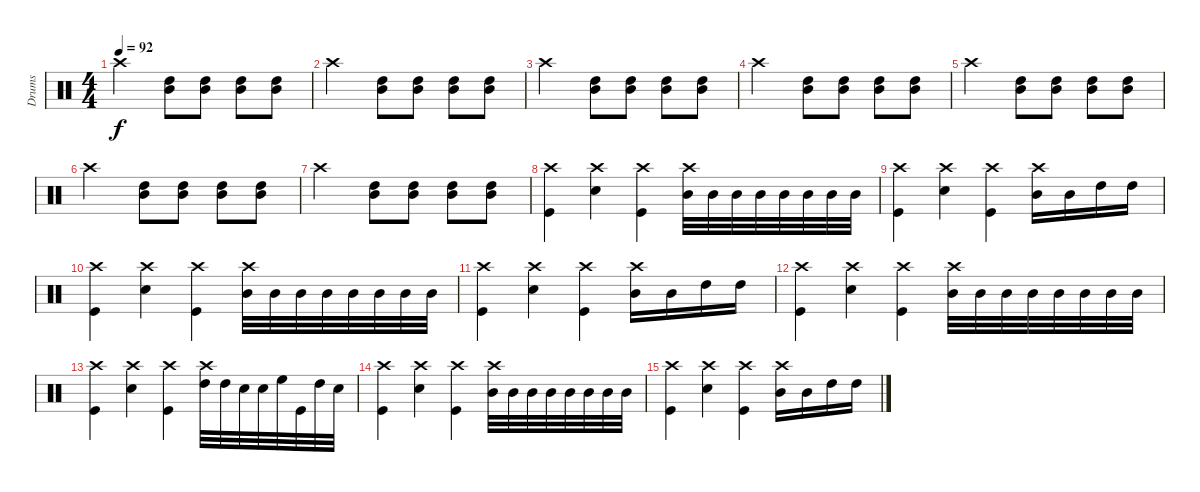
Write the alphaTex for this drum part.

\track ("Drums" "Drums") {instrument percussion}
\staff {score}
\articulation defaults
\ts (4 4)
\tempo 92
\clef neutral
\ks c "Crash high (hit)".2{dy f}
("Mid Tom (hit)" "High Tom (hit)").8 ("Mid Tom (hit)" "High Tom (hit)").8 ("Mid Tom (hit)" "High Tom (hit)").8 ("Mid Tom (hit)" "High Tom (hit)").8 |
"Crash high (hit)".2 ("Mid Tom (hit)" "High Tom (hit)").8 ("Mid Tom (hit)" "High Tom (hit)").8 ("Mid Tom (hit)" "High Tom (hit)").8 ("Mid Tom (hit)" "High Tom (hit)").8 |
"Crash high (hit)".2 ("Mid Tom (hit)" "High Tom (hit)").8 ("Mid Tom (hit)" "High Tom (hit)").8 ("Mid Tom (hit)" "High Tom (hit)").8 ("Mid Tom (hit)" "High Tom (hit)").8 |
"Crash high (hit)".2 ("Mid Tom (hit)" "High Tom (hit)").8 ("Mid Tom (hit)" "High Tom (hit)").8 ("Mid Tom (hit)" "High Tom (hit)").8 ("Mid Tom (hit)" "High Tom (hit)").8 |
"Crash high (hit)".2 ("Mid Tom (hit)" "High Tom (hit)").8 ("Mid Tom (hit)" "High Tom (hit)").8 ("Mid Tom (hit)" "High Tom (hit)").8 ("Mid Tom (hit)" "High Tom (hit)").8 |
"Crash high (hit)".2 ("Mid Tom (hit)" "High Tom (hit)").8 ("Mid Tom (hit)" "High Tom (hit)").8 ("Mid Tom (hit)" "High Tom (hit)").8 ("Mid Tom (hit)" "High Tom (hit)").8 |
"Crash high (hit)".2 ("Mid Tom (hit)" "High Tom (hit)").8 ("Mid Tom (hit)" "High Tom (hit)").8 ("Mid Tom (hit)" "High Tom (hit)").8 ("Mid Tom (hit)" "High Tom (hit)").8 |
("Crash high (hit)" "Kick (hit)").4 ("Crash high (hit)" "Electric Snare (hit)").4 ("Crash high (hit)" "Kick (hit)").4 ("Crash high (hit)" "Mid Tom (hit)").32 "Mid Tom (hit)".32 "Mid Tom (hit)".32 "Mid Tom (hit)".32 "Mid Tom (hit)".32 "Mid Tom (hit)".32 "Mid Tom (hit)".32 "Mid Tom (hit)".32 |
("Crash high (hit)" "Kick (hit)").4 ("Crash high (hit)" "Electric Snare (hit)").4 ("Crash high (hit)" "Kick (hit)").4 ("Crash high (hit)" "Mid Tom (hit)").16 "Mid Tom (hit)".16 "High Tom (hit)".16 "High Tom (hit)".16 |
("Crash high (hit)" "Kick (hit)").4 ("Crash high (hit)" "Electric Snare (hit)").4 ("Crash high (hit)" "Kick (hit)").4 ("Crash high (hit)" "Mid Tom (hit)").32 "Mid Tom (hit)".32 "Mid Tom (hit)".32 "Mid Tom (hit)".32 "Mid Tom (hit)".32 "Mid Tom (hit)".32 "Mid Tom (hit)".32 "Mid Tom (hit)".32 |
("Crash high (hit)" "Kick (hit)").4 ("Crash high (hit)" "Electric Snare (hit)").4 ("Crash high (hit)" "Kick (hit)").4 ("Crash high (hit)" "Mid Tom (hit)").16 "Mid Tom (hit)".16 "High Tom (hit)".16 "High Tom (hit)".16 |
("Crash high (hit)" "Kick (hit)").4 ("Crash high (hit)" "Electric Snare (hit)").4 ("Crash high (hit)" "Kick (hit)").4 ("Crash high (hit)" "Mid Tom (hit)").32 "Mid Tom (hit)".32 "Mid Tom (hit)".32 "Mid Tom (hit)".32 "Mid Tom (hit)".32 "Mid Tom (hit)".32 "Mid Tom (hit)".32 "Mid Tom (hit)".32 |
("Crash high (hit)" "Kick (hit)").4 ("Crash high (hit)" "Electric Snare (hit)").4 ("Crash high (hit)" "Kick (hit)").4 ("Crash high (hit)" "High Tom (hit)").32 "High Tom (hit)".32 "Electric Snare (hit)".32 "Electric Snare (hit)".32 "High Floor Tom (hit)".32 "Kick (hit)".32 "High Tom (hit)".32 "Electric Snare (hit)".32 |
("Crash high (hit)" "Kick (hit)").4 ("Crash high (hit)" "Electric Snare (hit)").4 ("Crash high (hit)" "Kick (hit)").4 ("Crash high (hit)" "Mid Tom (hit)").32 "Mid Tom (hit)".32 "Mid Tom (hit)".32 "Mid Tom (hit)".32 "Mid Tom (hit)".32 "Mid Tom (hit)".32 "Mid Tom (hit)".32 "Mid Tom (hit)".32 |
("Crash high (hit)" "Kick (hit)").4 ("Crash high (hit)" "Electric Snare (hit)").4 ("Crash high (hit)" "Kick (hit)").4 ("Crash high (hit)" "Mid Tom (hit)").16 "Mid Tom (hit)".16 "High Tom (hit)".16 "High Tom (hit)".16
